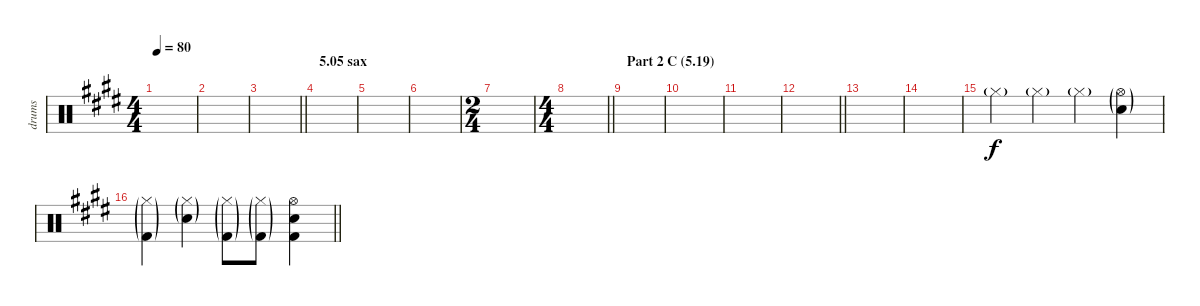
\track ("drums" "drums") {instrument percussion}
\staff {score}
\articulation defaults
\ts (4 4)
\tempo 80
\clef neutral
\ks e
|
|
\barLineRight lightlight
|
\section ("" "5.05 sax")
|
|
|
\ts (2 4)
|
\ts (4 4)
\barLineRight lightlight
|
\section ("" "Part 2 C (5.19)")
|
|
|
\barLineRight lightlight
|
|
|
"Hi-Hat (closed)"{g}.4 "Hi-Hat (closed)"{g}.4 "Hi-Hat (closed)"{g}.4 ("Hi-Hat (open)"{g} "Electric Snare (hit)"{g}).4 |
\barLineRight lightlight
("Hi-Hat (closed)"{g} "Kick (hit) 2"{g}).4 ("Hi-Hat (closed)"{g} "Electric Snare (hit)"{g}).4 ("Hi-Hat (closed)"{g} "Kick (hit) 2"{g}).8 ("Hi-Hat (closed)"{g} "Kick (hit) 2"{g}).8 ("Hi-Hat (open)" "Electric Snare (hit)" "Kick (hit) 2").4{dy f}
